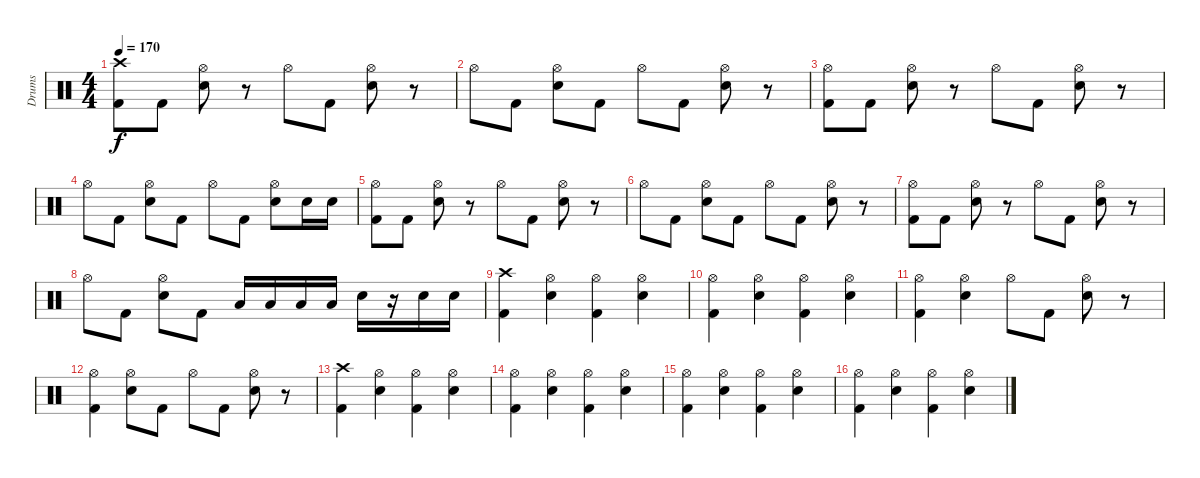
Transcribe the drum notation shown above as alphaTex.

\track ("Drums" "Drums") {instrument percussion}
\staff {score}
\articulation defaults
\ts (4 4)
\tempo 170
\clef neutral
\ks c
("Crash high (hit)" "Kick (hit) 2").8{dy f} "Kick (hit) 2".8 ("Hi-Hat (open)" "Snare (hit) 2").8 r.8 "Hi-Hat (open)".8 "Kick (hit) 2".8 ("Hi-Hat (open)" "Snare (hit) 2").8 r.8 |
"Hi-Hat (open)".8 "Kick (hit) 2".8 ("Hi-Hat (open)" "Snare (hit) 2").8 "Kick (hit) 2".8 "Hi-Hat (open)".8 "Kick (hit) 2".8 ("Hi-Hat (open)" "Snare (hit) 2").8 r.8 |
("Hi-Hat (open)" "Kick (hit) 2").8 "Kick (hit) 2".8 ("Hi-Hat (open)" "Snare (hit) 2").8 r.8 "Hi-Hat (open)".8 "Kick (hit) 2".8 ("Hi-Hat (open)" "Snare (hit) 2").8 r.8 |
"Hi-Hat (open)".8 "Kick (hit) 2".8 ("Hi-Hat (open)" "Snare (hit) 2").8 "Kick (hit) 2".8 "Hi-Hat (open)".8 "Kick (hit) 2".8 ("Hi-Hat (open)" "Snare (hit) 2").8 "Snare (hit) 2".16 "Snare (hit) 2".16 |
("Hi-Hat (open)" "Kick (hit) 2").8 "Kick (hit) 2".8 ("Hi-Hat (open)" "Snare (hit) 2").8 r.8 "Hi-Hat (open)".8 "Kick (hit) 2".8 ("Hi-Hat (open)" "Snare (hit) 2").8 r.8 |
"Hi-Hat (open)".8 "Kick (hit) 2".8 ("Hi-Hat (open)" "Snare (hit) 2").8 "Kick (hit) 2".8 "Hi-Hat (open)".8 "Kick (hit) 2".8 ("Hi-Hat (open)" "Snare (hit) 2").8 r.8 |
("Hi-Hat (open)" "Kick (hit) 2").8 "Kick (hit) 2".8 ("Hi-Hat (open)" "Snare (hit) 2").8 r.8 "Hi-Hat (open)".8 "Kick (hit) 2".8 ("Hi-Hat (open)" "Snare (hit) 2").8 r.8 |
"Hi-Hat (open)".8 "Kick (hit) 2".8 ("Hi-Hat (open)" "Snare (hit) 2").8 "Kick (hit) 2".8 "Low Floor Tom (hit)".16 "Low Floor Tom (hit)".16 "Low Floor Tom (hit)".16 "Low Floor Tom (hit)".16 "Snare (hit) 2".16 r.16 "Snare (hit) 2".16 "Snare (hit) 2".16 |
("Crash high (hit)" "Kick (hit) 2").4 ("Hi-Hat (open)" "Snare (hit) 2").4 ("Hi-Hat (open)" "Kick (hit) 2").4 ("Hi-Hat (open)" "Snare (hit) 2").4 |
("Hi-Hat (open)" "Kick (hit) 2").4 ("Hi-Hat (open)" "Snare (hit) 2").4 ("Hi-Hat (open)" "Kick (hit) 2").4 ("Hi-Hat (open)" "Snare (hit) 2").4 |
("Hi-Hat (open)" "Kick (hit) 2").4 ("Hi-Hat (open)" "Snare (hit) 2").4 "Hi-Hat (open)".8 "Kick (hit) 2".8 ("Hi-Hat (open)" "Snare (hit) 2").8 r.8 |
("Hi-Hat (open)" "Kick (hit) 2").4 ("Hi-Hat (open)" "Snare (hit) 2").8 "Kick (hit) 2".8 "Hi-Hat (open)".8 "Kick (hit) 2".8 ("Hi-Hat (open)" "Snare (hit) 2").8 r.8 |
("Crash high (hit)" "Kick (hit) 2").4 ("Hi-Hat (open)" "Snare (hit) 2").4 ("Hi-Hat (open)" "Kick (hit) 2").4 ("Hi-Hat (open)" "Snare (hit) 2").4 |
("Hi-Hat (open)" "Kick (hit) 2").4 ("Hi-Hat (open)" "Snare (hit) 2").4 ("Hi-Hat (open)" "Kick (hit) 2").4 ("Hi-Hat (open)" "Snare (hit) 2").4 |
("Hi-Hat (open)" "Kick (hit) 2").4 ("Hi-Hat (open)" "Snare (hit) 2").4 ("Hi-Hat (open)" "Kick (hit) 2").4 ("Hi-Hat (open)" "Snare (hit) 2").4 |
("Hi-Hat (open)" "Kick (hit) 2").4 ("Hi-Hat (open)" "Snare (hit) 2").4 ("Hi-Hat (open)" "Kick (hit) 2").4 ("Hi-Hat (open)" "Snare (hit) 2").4
